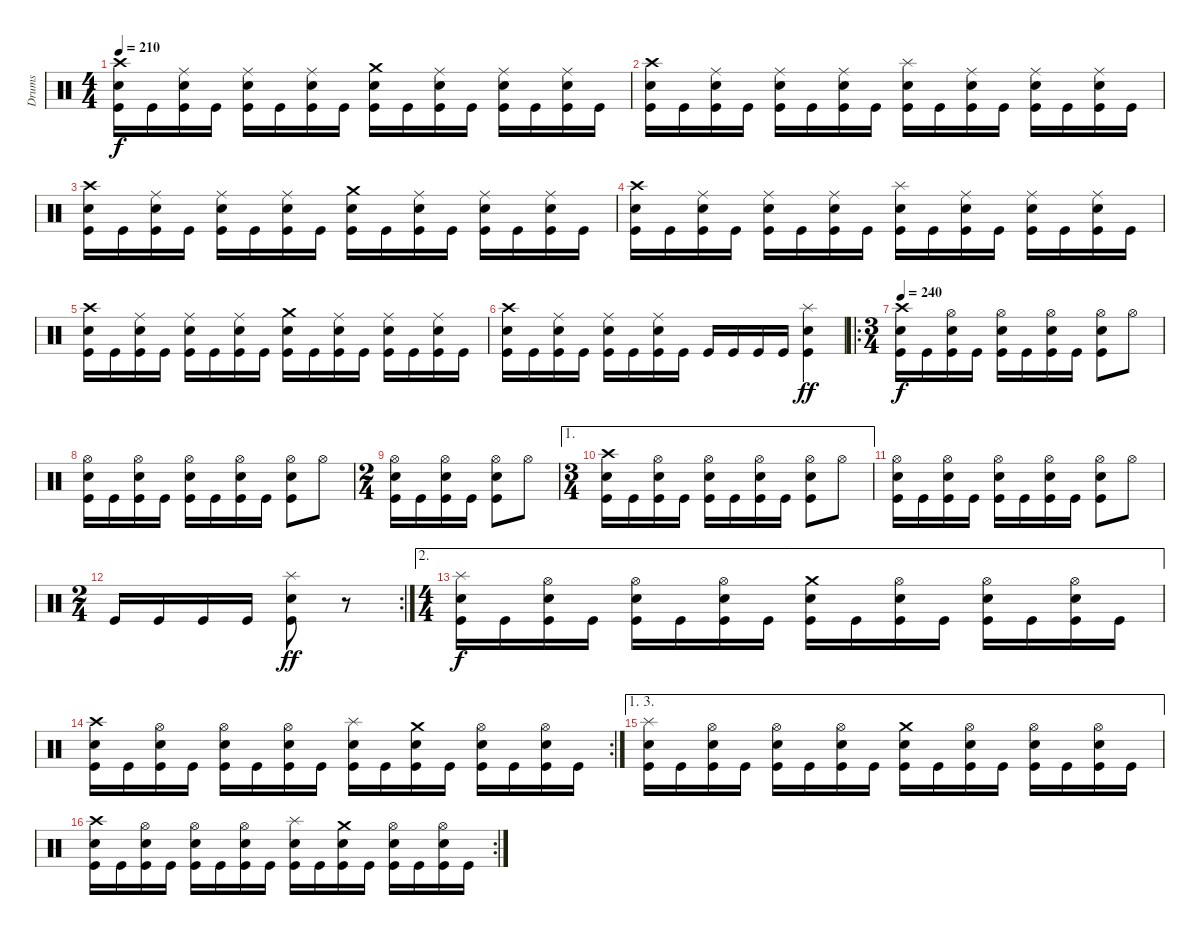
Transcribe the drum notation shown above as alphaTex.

\track ("Drums" "Drums") {instrument percussion}
\staff {score}
\articulation defaults
\ts (4 4)
\tempo 210
\clef neutral
\ks c
("Crash high (hit)" "Electric Snare (hit)" "Kick (hit)").16{dy f} "Kick (hit)".16 ("Ride (middle)" "Electric Snare (hit)" "Kick (hit)").16 "Kick (hit)".16 ("Ride (middle)" "Electric Snare (hit)" "Kick (hit)").16 "Kick (hit)".16 ("Ride (middle)" "Electric Snare (hit)" "Kick (hit)").16 "Kick (hit)".16 ("Crash medium (hit)" "Electric Snare (hit)" "Kick (hit)").16 "Kick (hit)".16 ("Ride (middle)" "Electric Snare (hit)" "Kick (hit)").16 "Kick (hit)".16 ("Ride (middle)" "Electric Snare (hit)" "Kick (hit)").16 "Kick (hit)".16 ("Ride (middle)" "Electric Snare (hit)" "Kick (hit)").16 "Kick (hit)".16 |
("Crash high (hit)" "Electric Snare (hit)" "Kick (hit)").16 "Kick (hit)".16 ("Ride (middle)" "Electric Snare (hit)" "Kick (hit)").16 "Kick (hit)".16 ("Ride (middle)" "Electric Snare (hit)" "Kick (hit)").16 "Kick (hit)".16 ("Ride (middle)" "Electric Snare (hit)" "Kick (hit)").16 "Kick (hit)".16 ("Splash (hit)" "Electric Snare (hit)" "Kick (hit)").16 "Kick (hit)".16 ("Ride (middle)" "Electric Snare (hit)" "Kick (hit)").16 "Kick (hit)".16 ("Ride (middle)" "Electric Snare (hit)" "Kick (hit)").16 "Kick (hit)".16 ("Ride (middle)" "Electric Snare (hit)" "Kick (hit)").16 "Kick (hit)".16 |
("Crash high (hit)" "Electric Snare (hit)" "Kick (hit)").16 "Kick (hit)".16 ("Ride (middle)" "Electric Snare (hit)" "Kick (hit)").16 "Kick (hit)".16 ("Ride (middle)" "Electric Snare (hit)" "Kick (hit)").16 "Kick (hit)".16 ("Ride (middle)" "Electric Snare (hit)" "Kick (hit)").16 "Kick (hit)".16 ("Crash medium (hit)" "Electric Snare (hit)" "Kick (hit)").16 "Kick (hit)".16 ("Ride (middle)" "Electric Snare (hit)" "Kick (hit)").16 "Kick (hit)".16 ("Ride (middle)" "Electric Snare (hit)" "Kick (hit)").16 "Kick (hit)".16 ("Ride (middle)" "Electric Snare (hit)" "Kick (hit)").16 "Kick (hit)".16 |
("Crash high (hit)" "Electric Snare (hit)" "Kick (hit)").16 "Kick (hit)".16 ("Ride (middle)" "Electric Snare (hit)" "Kick (hit)").16 "Kick (hit)".16 ("Ride (middle)" "Electric Snare (hit)" "Kick (hit)").16 "Kick (hit)".16 ("Ride (middle)" "Electric Snare (hit)" "Kick (hit)").16 "Kick (hit)".16 ("Splash (hit)" "Electric Snare (hit)" "Kick (hit)").16 "Kick (hit)".16 ("Ride (middle)" "Electric Snare (hit)" "Kick (hit)").16 "Kick (hit)".16 ("Ride (middle)" "Electric Snare (hit)" "Kick (hit)").16 "Kick (hit)".16 ("Ride (middle)" "Electric Snare (hit)" "Kick (hit)").16 "Kick (hit)".16 |
("Crash high (hit)" "Electric Snare (hit)" "Kick (hit)").16 "Kick (hit)".16 ("Ride (middle)" "Electric Snare (hit)" "Kick (hit)").16 "Kick (hit)".16 ("Ride (middle)" "Electric Snare (hit)" "Kick (hit)").16 "Kick (hit)".16 ("Ride (middle)" "Electric Snare (hit)" "Kick (hit)").16 "Kick (hit)".16 ("Crash medium (hit)" "Electric Snare (hit)" "Kick (hit)").16 "Kick (hit)".16 ("Ride (middle)" "Electric Snare (hit)" "Kick (hit)").16 "Kick (hit)".16 ("Ride (middle)" "Electric Snare (hit)" "Kick (hit)").16 "Kick (hit)".16 ("Ride (middle)" "Electric Snare (hit)" "Kick (hit)").16 "Kick (hit)".16 |
("Crash high (hit)" "Electric Snare (hit)" "Kick (hit)").16 "Kick (hit)".16 ("Ride (middle)" "Electric Snare (hit)" "Kick (hit)").16 "Kick (hit)".16 ("Ride (middle)" "Electric Snare (hit)" "Kick (hit)").16 "Kick (hit)".16 ("Ride (middle)" "Electric Snare (hit)" "Kick (hit)").16 "Kick (hit)".16 "Kick (hit)".16 "Kick (hit)".16 "Kick (hit)".16 "Kick (hit)".16 ("Splash (hit)" "Electric Snare (hit)" "Kick (hit)").4{dy ff} |
\ro
\ts (3 4)
\tempo 240
("Crash high (hit)" "Electric Snare (hit)" "Kick (hit)").16{dy f} "Kick (hit)".16 ("Hi-Hat (open)" "Electric Snare (hit)" "Kick (hit)").16 "Kick (hit)".16 ("Hi-Hat (open)" "Electric Snare (hit)" "Kick (hit)").16 "Kick (hit)".16 ("Hi-Hat (open)" "Electric Snare (hit)" "Kick (hit)").16 "Kick (hit)".16 ("Hi-Hat (open)" "Electric Snare (hit)" "Kick (hit)").8 "Hi-Hat (open)".8 |
("Hi-Hat (open)" "Electric Snare (hit)" "Kick (hit)").16 "Kick (hit)".16 ("Hi-Hat (open)" "Electric Snare (hit)" "Kick (hit)").16 "Kick (hit)".16 ("Hi-Hat (open)" "Electric Snare (hit)" "Kick (hit)").16 "Kick (hit)".16 ("Hi-Hat (open)" "Electric Snare (hit)" "Kick (hit)").16 "Kick (hit)".16 ("Hi-Hat (open)" "Electric Snare (hit)" "Kick (hit)").8 "Hi-Hat (open)".8 |
\ts (2 4)
("Hi-Hat (open)" "Electric Snare (hit)" "Kick (hit)").16 "Kick (hit)".16 ("Hi-Hat (open)" "Electric Snare (hit)" "Kick (hit)").16 "Kick (hit)".16 ("Hi-Hat (open)" "Electric Snare (hit)" "Kick (hit)").8 "Hi-Hat (open)".8 |
\ae 1
\ts (3 4)
("Crash high (hit)" "Electric Snare (hit)" "Kick (hit)").16 "Kick (hit)".16 ("Hi-Hat (open)" "Electric Snare (hit)" "Kick (hit)").16 "Kick (hit)".16 ("Hi-Hat (open)" "Electric Snare (hit)" "Kick (hit)").16 "Kick (hit)".16 ("Hi-Hat (open)" "Electric Snare (hit)" "Kick (hit)").16 "Kick (hit)".16 ("Hi-Hat (open)" "Electric Snare (hit)" "Kick (hit)").8 "Hi-Hat (open)".8 |
("Hi-Hat (open)" "Electric Snare (hit)" "Kick (hit)").16 "Kick (hit)".16 ("Hi-Hat (open)" "Electric Snare (hit)" "Kick (hit)").16 "Kick (hit)".16 ("Hi-Hat (open)" "Electric Snare (hit)" "Kick (hit)").16 "Kick (hit)".16 ("Hi-Hat (open)" "Electric Snare (hit)" "Kick (hit)").16 "Kick (hit)".16 ("Hi-Hat (open)" "Electric Snare (hit)" "Kick (hit)").8 "Hi-Hat (open)".8 |
\rc 2
\ts (2 4)
"Kick (hit)".16 "Kick (hit)".16 "Kick (hit)".16 "Kick (hit)".16 ("Splash (hit)" "Electric Snare (hit)" "Kick (hit)").8{dy ff} r.8 |
\ae 2
\ts (4 4)
("Splash (hit)" "Electric Snare (hit)" "Kick (hit)").16{dy f} "Kick (hit)".16 ("Hi-Hat (open)" "Electric Snare (hit)" "Kick (hit)").16 "Kick (hit)".16 ("Hi-Hat (open)" "Electric Snare (hit)" "Kick (hit)").16 "Kick (hit)".16 ("Hi-Hat (open)" "Electric Snare (hit)" "Kick (hit)").16 "Kick (hit)".16 ("Crash medium (hit)" "Electric Snare (hit)" "Kick (hit)").16 "Kick (hit)".16 ("Hi-Hat (open)" "Electric Snare (hit)" "Kick (hit)").16 "Kick (hit)".16 ("Hi-Hat (open)" "Electric Snare (hit)" "Kick (hit)").16 "Kick (hit)".16 ("Hi-Hat (open)" "Electric Snare (hit)" "Kick (hit)").16 "Kick (hit)".16 |
\rc 2
("Crash high (hit)" "Electric Snare (hit)" "Kick (hit)").16 "Kick (hit)".16 ("Hi-Hat (open)" "Electric Snare (hit)" "Kick (hit)").16 "Kick (hit)".16 ("Hi-Hat (open)" "Electric Snare (hit)" "Kick (hit)").16 "Kick (hit)".16 ("Hi-Hat (open)" "Electric Snare (hit)" "Kick (hit)").16 "Kick (hit)".16 ("Splash (hit)" "Electric Snare (hit)" "Kick (hit)").16 "Kick (hit)".16 ("Crash medium (hit)" "Electric Snare (hit)" "Kick (hit)").16 "Kick (hit)".16 ("Hi-Hat (open)" "Electric Snare (hit)" "Kick (hit)").16 "Kick (hit)".16 ("Hi-Hat (open)" "Electric Snare (hit)" "Kick (hit)").16 "Kick (hit)".16 |
\ae (1 3)
("Splash (hit)" "Electric Snare (hit)" "Kick (hit)").16 "Kick (hit)".16 ("Hi-Hat (open)" "Electric Snare (hit)" "Kick (hit)").16 "Kick (hit)".16 ("Hi-Hat (open)" "Electric Snare (hit)" "Kick (hit)").16 "Kick (hit)".16 ("Hi-Hat (open)" "Electric Snare (hit)" "Kick (hit)").16 "Kick (hit)".16 ("Crash medium (hit)" "Electric Snare (hit)" "Kick (hit)").16 "Kick (hit)".16 ("Hi-Hat (open)" "Electric Snare (hit)" "Kick (hit)").16 "Kick (hit)".16 ("Hi-Hat (open)" "Electric Snare (hit)" "Kick (hit)").16 "Kick (hit)".16 ("Hi-Hat (open)" "Electric Snare (hit)" "Kick (hit)").16 "Kick (hit)".16 |
\rc 2
("Crash high (hit)" "Electric Snare (hit)" "Kick (hit)").16 "Kick (hit)".16 ("Hi-Hat (open)" "Electric Snare (hit)" "Kick (hit)").16 "Kick (hit)".16 ("Hi-Hat (open)" "Electric Snare (hit)" "Kick (hit)").16 "Kick (hit)".16 ("Hi-Hat (open)" "Electric Snare (hit)" "Kick (hit)").16 "Kick (hit)".16 ("Splash (hit)" "Electric Snare (hit)" "Kick (hit)").16 "Kick (hit)".16 ("Crash medium (hit)" "Electric Snare (hit)" "Kick (hit)").16 "Kick (hit)".16 ("Hi-Hat (open)" "Electric Snare (hit)" "Kick (hit)").16 "Kick (hit)".16 ("Hi-Hat (open)" "Electric Snare (hit)" "Kick (hit)").16 "Kick (hit)".16
